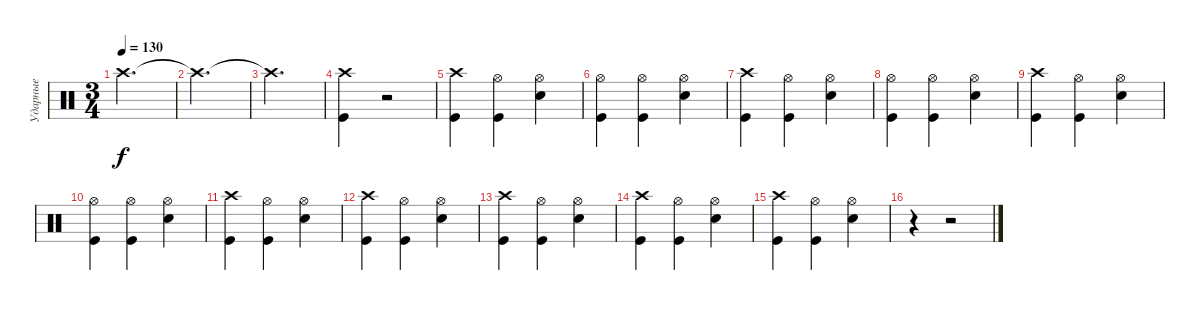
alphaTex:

\track ("Ударные" "Ударные") {instrument percussion}
\staff {score}
\articulation defaults
\ts (3 4)
\tempo 130
\clef neutral
\ks c "Crash high (hit)"{t}.2{d dy f}
|
"Crash high (hit)"{t}.2{d} |
"Crash high (hit)"{t}.2{d} |
("Kick (hit)" "Crash high (hit)").4 r.2 |
("Kick (hit)" "Crash high (hit)").4 ("Hi-Hat (open)" "Kick (hit)").4 ("Hi-Hat (open)" "Snare (hit) 2").4 |
("Hi-Hat (open)" "Kick (hit)").4 ("Hi-Hat (open)" "Kick (hit)").4 ("Hi-Hat (open)" "Snare (hit) 2").4 |
("Kick (hit)" "Crash high (hit)").4 ("Hi-Hat (open)" "Kick (hit)").4 ("Hi-Hat (open)" "Snare (hit) 2").4 |
("Hi-Hat (open)" "Kick (hit)").4 ("Hi-Hat (open)" "Kick (hit)").4 ("Hi-Hat (open)" "Snare (hit) 2").4 |
("Kick (hit)" "Crash high (hit)").4 ("Hi-Hat (open)" "Kick (hit)").4 ("Hi-Hat (open)" "Snare (hit) 2").4 |
("Hi-Hat (open)" "Kick (hit)").4 ("Hi-Hat (open)" "Kick (hit)").4 ("Hi-Hat (open)" "Snare (hit) 2").4 |
("Kick (hit)" "Crash high (hit)").4 ("Hi-Hat (open)" "Kick (hit)").4 ("Hi-Hat (open)" "Snare (hit) 2").4 |
("Crash high (hit)" "Kick (hit)").4 ("Hi-Hat (open)" "Kick (hit)").4 ("Hi-Hat (open)" "Snare (hit) 2").4 |
("Crash high (hit)" "Kick (hit)").4 ("Hi-Hat (open)" "Kick (hit)").4 ("Hi-Hat (open)" "Snare (hit) 2").4 |
("Crash high (hit)" "Kick (hit)").4 ("Hi-Hat (open)" "Kick (hit)").4 ("Hi-Hat (open)" "Snare (hit) 2").4 |
("Crash high (hit)" "Kick (hit)").4 ("Hi-Hat (open)" "Kick (hit)").4 ("Hi-Hat (open)" "Snare (hit) 2").4 |
r.4 r.2
